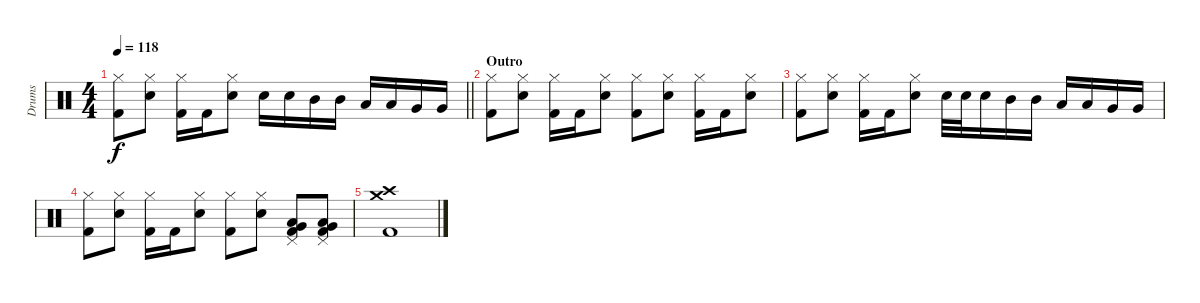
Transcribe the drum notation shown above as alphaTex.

\track ("Drums" "Drums") {instrument percussion}
\staff {score}
\articulation defaults
\ts (4 4)
\tempo 118
\clef neutral
\barLineRight lightlight
\ks c
("Hi-Hat (closed)" "Kick (hit) 2").8{dy f} ("Hi-Hat (closed)" "Electric Snare (hit)").8 ("Hi-Hat (closed)" "Kick (hit) 2").16 "Kick (hit) 2".16 ("Hi-Hat (closed)" "Electric Snare (hit)").8 "Electric Snare (hit)".16 "Electric Snare (hit)".16 "Mid Tom (hit)".16 "Mid Tom (hit)".16 "Low Tom (hit)".16 "Low Tom (hit)".16 "Very Low Tom (hit)".16 "Very Low Tom (hit)".16 |
\section ("" "Outro")
("Hi-Hat (closed)" "Kick (hit) 2").8 ("Hi-Hat (closed)" "Electric Snare (hit)").8 ("Hi-Hat (closed)" "Kick (hit) 2").16 "Kick (hit) 2".16 ("Hi-Hat (closed)" "Electric Snare (hit)").8 ("Hi-Hat (closed)" "Kick (hit) 2").8 ("Hi-Hat (closed)" "Electric Snare (hit)").8 ("Hi-Hat (closed)" "Kick (hit) 2").16 "Kick (hit) 2".16 ("Hi-Hat (closed)" "Electric Snare (hit)").8 |
("Hi-Hat (closed)" "Kick (hit) 2").8 ("Hi-Hat (closed)" "Electric Snare (hit)").8 ("Hi-Hat (closed)" "Kick (hit) 2").16 "Kick (hit) 2".16 ("Hi-Hat (closed)" "Electric Snare (hit)").8 "Electric Snare (hit)".32 "Electric Snare (hit)".32 "Electric Snare (hit)".16 "Mid Tom (hit)".16 "Mid Tom (hit)".16 "Low Tom (hit)".16 "Low Tom (hit)".16 "Very Low Tom (hit)".16 "Very Low Tom (hit)".16 |
("Hi-Hat (closed)" "Kick (hit) 2").8 ("Hi-Hat (closed)" "Electric Snare (hit)").8 ("Hi-Hat (closed)" "Kick (hit) 2").16 "Kick (hit) 2".16 ("Hi-Hat (closed)" "Electric Snare (hit)").8 ("Hi-Hat (closed)" "Kick (hit) 2").8 ("Hi-Hat (closed)" "Electric Snare (hit)").8 ("Pedal Hi-Hat (hit)" "Very Low Tom (hit)" "Low Tom (hit)" "Kick (hit) 2").8 ("Pedal Hi-Hat (hit)" "Very Low Tom (hit)" "Low Tom (hit)" "Kick (hit) 2").8 |
("Crash medium (hit)" "Crash high (hit)" "Kick (hit) 2").1
